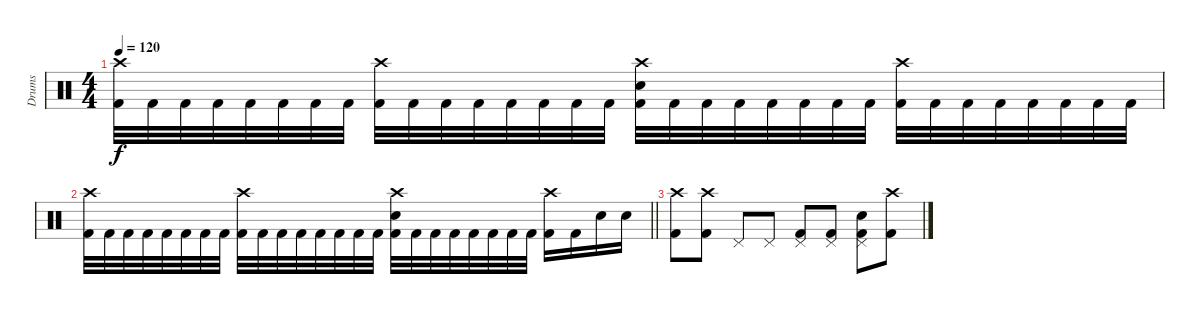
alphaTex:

\track ("Drums" "Drums") {instrument percussion}
\staff
\articulation defaults
\ts (4 4)
\tempo 120
\clef neutral
\ks c
("Crash high (hit)" "Kick (hit) 2").32{dy f} "Kick (hit) 2".32 "Kick (hit) 2".32 "Kick (hit) 2".32 "Kick (hit) 2".32 "Kick (hit) 2".32 "Kick (hit) 2".32 "Kick (hit) 2".32 ("Crash high (hit)" "Kick (hit) 2").32 "Kick (hit) 2".32 "Kick (hit) 2".32 "Kick (hit) 2".32 "Kick (hit) 2".32 "Kick (hit) 2".32 "Kick (hit) 2".32 "Kick (hit) 2".32 ("Crash high (hit)" "Electric Snare (hit)" "Kick (hit) 2").32 "Kick (hit) 2".32 "Kick (hit) 2".32 "Kick (hit) 2".32 "Kick (hit) 2".32 "Kick (hit) 2".32 "Kick (hit) 2".32 "Kick (hit) 2".32 ("Crash high (hit)" "Kick (hit) 2").32 "Kick (hit) 2".32 "Kick (hit) 2".32 "Kick (hit) 2".32 "Kick (hit) 2".32 "Kick (hit) 2".32 "Kick (hit) 2".32 "Kick (hit) 2".32 |
\barLineRight lightlight
("Crash high (hit)" "Kick (hit) 2").32 "Kick (hit) 2".32 "Kick (hit) 2".32 "Kick (hit) 2".32 "Kick (hit) 2".32 "Kick (hit) 2".32 "Kick (hit) 2".32 "Kick (hit) 2".32 ("Crash high (hit)" "Kick (hit) 2").32 "Kick (hit) 2".32 "Kick (hit) 2".32 "Kick (hit) 2".32 "Kick (hit) 2".32 "Kick (hit) 2".32 "Kick (hit) 2".32 "Kick (hit) 2".32 ("Crash high (hit)" "Electric Snare (hit)" "Kick (hit) 2").32 "Kick (hit) 2".32 "Kick (hit) 2".32 "Kick (hit) 2".32 "Kick (hit) 2".32 "Kick (hit) 2".32 "Kick (hit) 2".32 "Kick (hit) 2".32 ("Crash high (hit)" "Kick (hit) 2").16 "Kick (hit) 2".16 "Electric Snare (hit)".16 "Electric Snare (hit)".16 |
("Crash high (hit)" "Kick (hit) 2").8 ("Crash high (hit)" "Kick (hit) 2").8 "Pedal Hi-Hat (hit)".8 "Pedal Hi-Hat (hit)".8 ("Pedal Hi-Hat (hit)" "Kick (hit) 2").8 ("Pedal Hi-Hat (hit)" "Kick (hit) 2").8 ("Pedal Hi-Hat (hit)" "Electric Snare (hit)" "Kick (hit) 2").8 ("Crash high (hit)" "Kick (hit) 2").8
